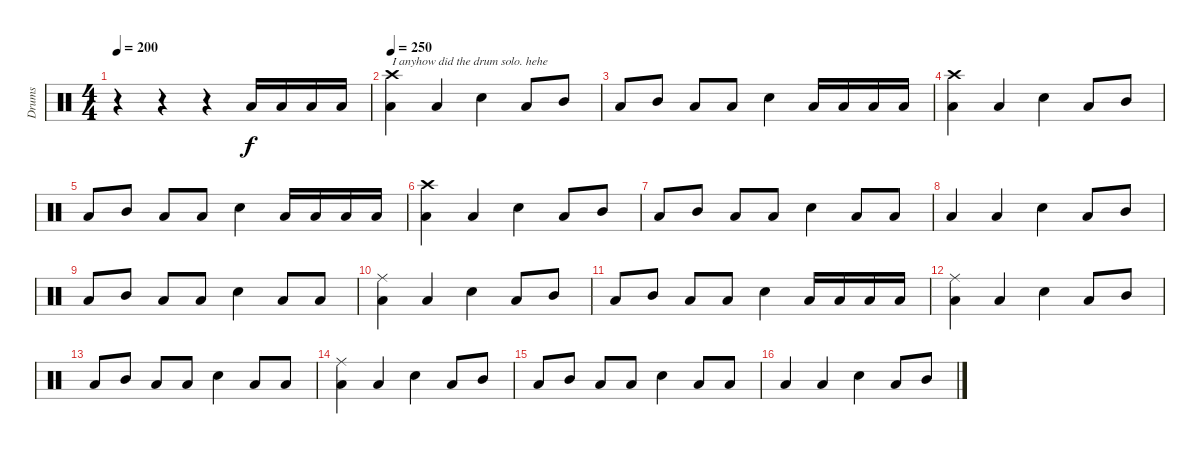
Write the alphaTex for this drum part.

\track ("Drums" "Drums") {instrument percussion}
\staff {score}
\articulation defaults
\ts (4 4)
\tempo 200
\clef neutral
\ks c
r.4{dy f} r.4 r.4 "Low Tom (hit)".16 "Low Tom (hit)".16 "Low Tom (hit)".16 "Low Tom (hit)".16 |
\tempo 250
("Crash high (hit)" "Low Tom (hit)").4{txt "I anyhow did the drum solo. hehe"} "Low Tom (hit)".4 "Electric Snare (hit)".4 "Low Tom (hit)".8 "Mid Tom (hit)".8 |
"Low Tom (hit)".8 "Mid Tom (hit)".8 "Low Tom (hit)".8 "Low Tom (hit)".8 "Electric Snare (hit)".4 "Low Tom (hit)".16 "Low Tom (hit)".16 "Low Tom (hit)".16 "Low Tom (hit)".16 |
("Crash high (hit)" "Low Tom (hit)").4 "Low Tom (hit)".4 "Electric Snare (hit)".4 "Low Tom (hit)".8 "Mid Tom (hit)".8 |
"Low Tom (hit)".8 "Mid Tom (hit)".8 "Low Tom (hit)".8 "Low Tom (hit)".8 "Electric Snare (hit)".4 "Low Tom (hit)".16 "Low Tom (hit)".16 "Low Tom (hit)".16 "Low Tom (hit)".16 |
("Crash high (hit)" "Low Tom (hit)").4 "Low Tom (hit)".4 "Electric Snare (hit)".4 "Low Tom (hit)".8 "Mid Tom (hit)".8 |
"Low Tom (hit)".8 "Mid Tom (hit)".8 "Low Tom (hit)".8 "Low Tom (hit)".8 "Electric Snare (hit)".4 "Low Tom (hit)".8 "Low Tom (hit)".8 |
"Low Tom (hit)".4 "Low Tom (hit)".4 "Electric Snare (hit)".4 "Low Tom (hit)".8 "Mid Tom (hit)".8 |
"Low Tom (hit)".8 "Mid Tom (hit)".8 "Low Tom (hit)".8 "Low Tom (hit)".8 "Electric Snare (hit)".4 "Low Tom (hit)".8 "Low Tom (hit)".8 |
("Ride (middle)" "Low Tom (hit)").4 "Low Tom (hit)".4 "Electric Snare (hit)".4 "Low Tom (hit)".8 "Mid Tom (hit)".8 |
"Low Tom (hit)".8 "Mid Tom (hit)".8 "Low Tom (hit)".8 "Low Tom (hit)".8 "Electric Snare (hit)".4 "Low Tom (hit)".16 "Low Tom (hit)".16 "Low Tom (hit)".16 "Low Tom (hit)".16 |
("Ride (middle)" "Low Tom (hit)").4 "Low Tom (hit)".4 "Electric Snare (hit)".4 "Low Tom (hit)".8 "Mid Tom (hit)".8 |
"Low Tom (hit)".8 "Mid Tom (hit)".8 "Low Tom (hit)".8 "Low Tom (hit)".8 "Electric Snare (hit)".4 "Low Tom (hit)".8 "Low Tom (hit)".8 |
("Ride (middle)" "Low Tom (hit)").4 "Low Tom (hit)".4 "Electric Snare (hit)".4 "Low Tom (hit)".8 "Mid Tom (hit)".8 |
"Low Tom (hit)".8 "Mid Tom (hit)".8 "Low Tom (hit)".8 "Low Tom (hit)".8 "Electric Snare (hit)".4 "Low Tom (hit)".8 "Low Tom (hit)".8 |
"Low Tom (hit)".4 "Low Tom (hit)".4 "Electric Snare (hit)".4 "Low Tom (hit)".8 "Mid Tom (hit)".8
